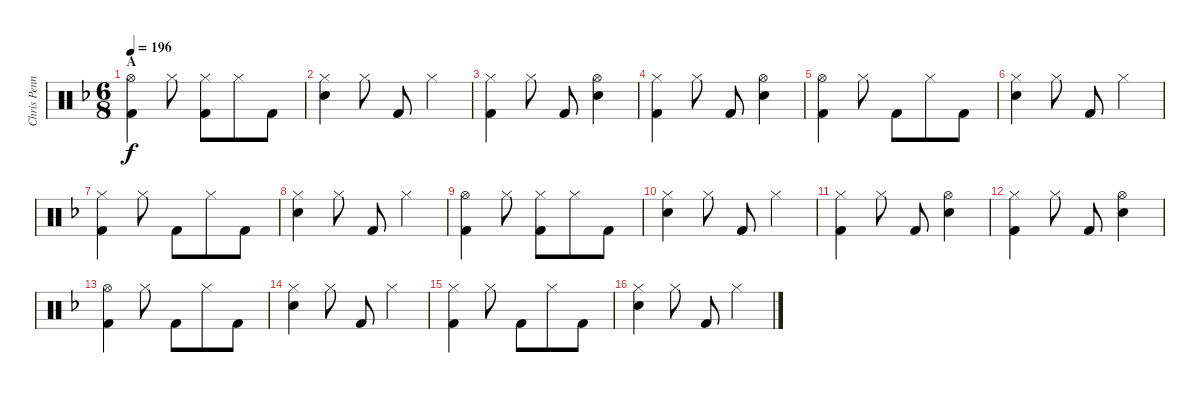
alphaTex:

\track ("Chris Pennie/Taylor Hawkins - Drum" "Chris Penn") {instrument percussion}
\staff {score}
\articulation defaults
\ts (6 8)
\section ("" "A")
\tempo 196
\clef neutral
\ks f
("Hi-Hat (open)" "Kick (hit) 2").4{dy f} "Hi-Hat (closed)".8 ("Hi-Hat (closed)" "Kick (hit) 2").8 "Hi-Hat (closed)".8 "Kick (hit) 2".8 |
("Hi-Hat (closed)" "Electric Snare (hit)").4 "Hi-Hat (closed)".8 "Kick (hit) 2".8 "Hi-Hat (closed)".4 |
("Hi-Hat (closed)" "Kick (hit) 2").4 "Hi-Hat (closed)".8 "Kick (hit) 2".8 ("Hi-Hat (open)" "Electric Snare (hit)").4 |
("Hi-Hat (closed)" "Kick (hit) 2").4 "Hi-Hat (closed)".8 "Kick (hit) 2".8 ("Hi-Hat (open)" "Electric Snare (hit)").4 |
("Hi-Hat (open)" "Kick (hit) 2").4 "Hi-Hat (closed)".8 "Kick (hit) 2".8 "Hi-Hat (closed)".8 "Kick (hit) 2".8 |
("Hi-Hat (closed)" "Electric Snare (hit)").4 "Hi-Hat (closed)".8 "Kick (hit) 2".8 "Hi-Hat (closed)".4 |
("Hi-Hat (closed)" "Kick (hit) 2").4 "Hi-Hat (closed)".8 "Kick (hit) 2".8 "Hi-Hat (closed)".8 "Kick (hit) 2".8 |
("Hi-Hat (closed)" "Electric Snare (hit)").4 "Hi-Hat (closed)".8 "Kick (hit) 2".8 "Hi-Hat (closed)".4 |
("Hi-Hat (open)" "Kick (hit) 2").4 "Hi-Hat (closed)".8 ("Hi-Hat (closed)" "Kick (hit) 2").8 "Hi-Hat (closed)".8 "Kick (hit) 2".8 |
("Hi-Hat (closed)" "Electric Snare (hit)").4 "Hi-Hat (closed)".8 "Kick (hit) 2".8 "Hi-Hat (closed)".4 |
("Hi-Hat (closed)" "Kick (hit) 2").4 "Hi-Hat (closed)".8 "Kick (hit) 2".8 ("Hi-Hat (open)" "Electric Snare (hit)").4 |
("Hi-Hat (closed)" "Kick (hit) 2").4 "Hi-Hat (closed)".8 "Kick (hit) 2".8 ("Hi-Hat (open)" "Electric Snare (hit)").4 |
("Hi-Hat (open)" "Kick (hit) 2").4 "Hi-Hat (closed)".8 "Kick (hit) 2".8 "Hi-Hat (closed)".8 "Kick (hit) 2".8 |
("Hi-Hat (closed)" "Electric Snare (hit)").4 "Hi-Hat (closed)".8 "Kick (hit) 2".8 "Hi-Hat (closed)".4 |
("Hi-Hat (closed)" "Kick (hit) 2").4 "Hi-Hat (closed)".8 "Kick (hit) 2".8 "Hi-Hat (closed)".8 "Kick (hit) 2".8 |
("Hi-Hat (closed)" "Electric Snare (hit)").4 "Hi-Hat (closed)".8 "Kick (hit) 2".8 "Hi-Hat (closed)".4
